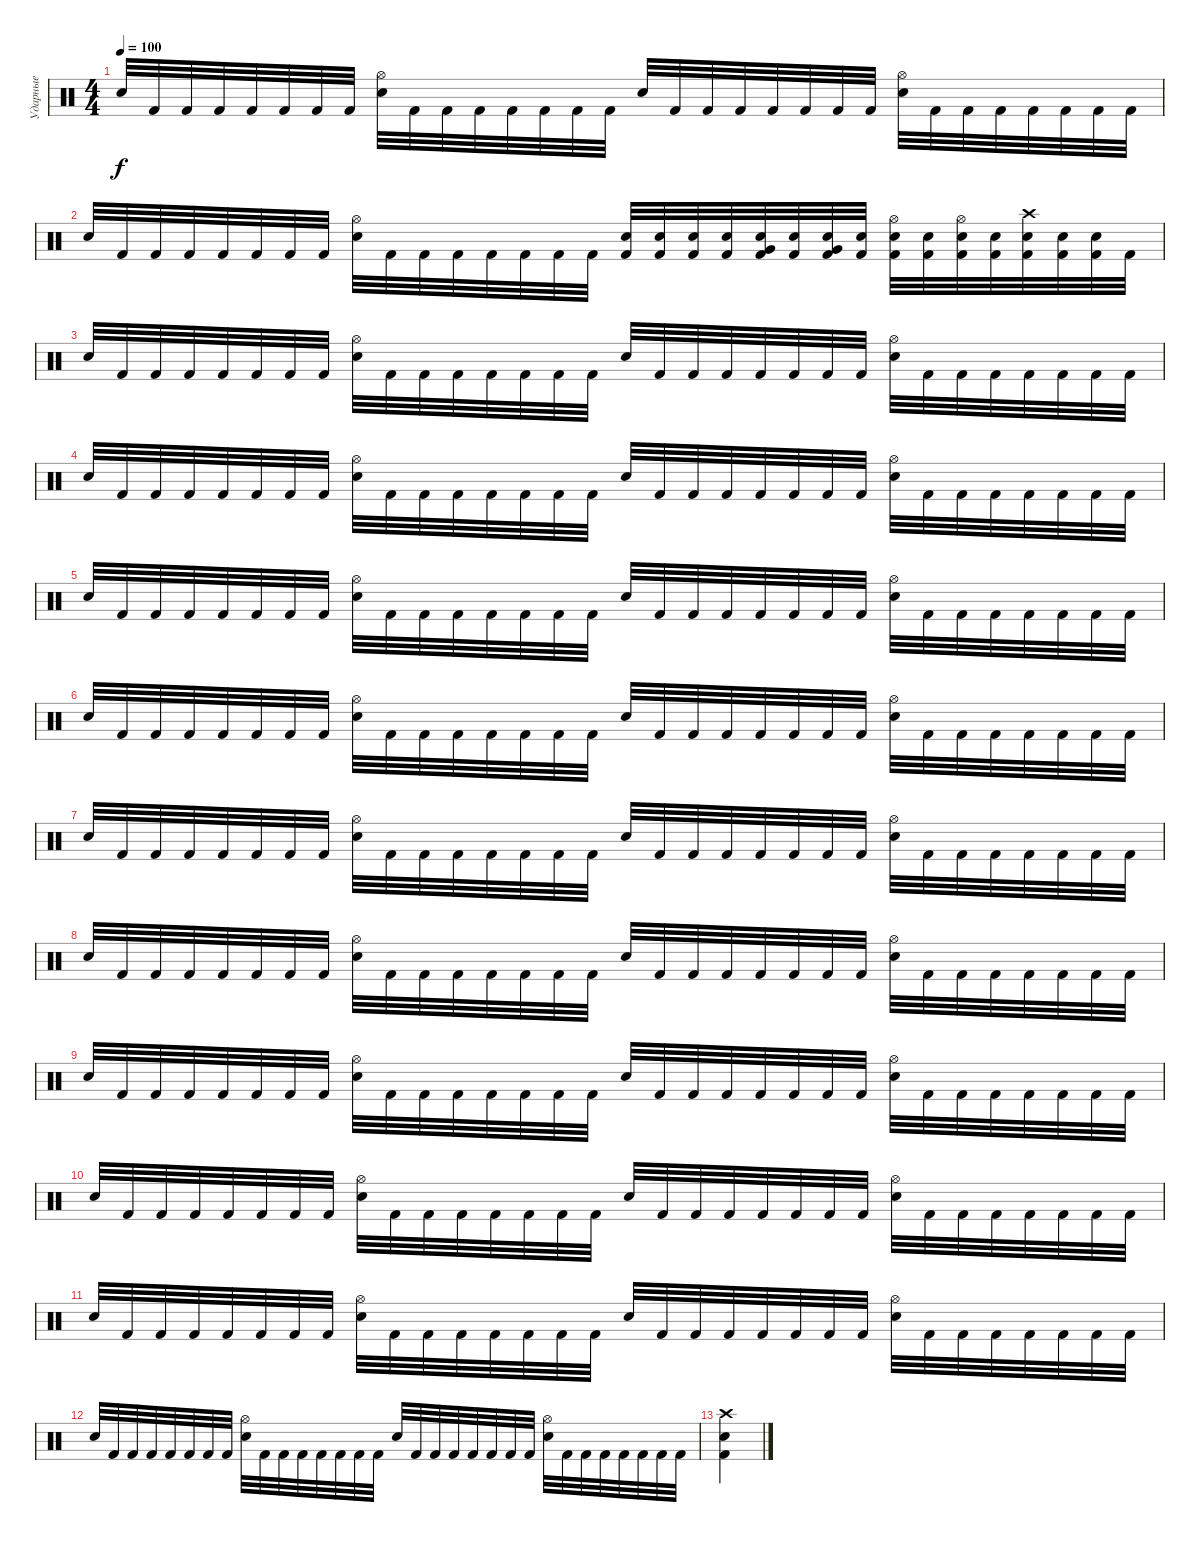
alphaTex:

\track ("Ударные" "Ударные") {instrument percussion}
\staff {score}
\articulation defaults
\ts (4 4)
\tempo 100
\clef neutral
\ks c "Electric Snare (hit)".32{dy f} "Kick (hit) 2".32 "Kick (hit) 2".32 "Kick (hit) 2".32 "Kick (hit) 2".32 "Kick (hit) 2".32 "Kick (hit) 2".32 "Kick (hit) 2".32
("Hi-Hat (open)" "Electric Snare (hit)").32 "Kick (hit) 2".32 "Kick (hit) 2".32 "Kick (hit) 2".32 "Kick (hit) 2".32 "Kick (hit) 2".32 "Kick (hit) 2".32 "Kick (hit) 2".32 "Electric Snare (hit)".32 "Kick (hit) 2".32 "Kick (hit) 2".32 "Kick (hit) 2".32 "Kick (hit) 2".32 "Kick (hit) 2".32 "Kick (hit) 2".32 "Kick (hit) 2".32 ("Hi-Hat (open)" "Electric Snare (hit)").32 "Kick (hit) 2".32 "Kick (hit) 2".32 "Kick (hit) 2".32 "Kick (hit) 2".32 "Kick (hit) 2".32 "Kick (hit) 2".32 "Kick (hit) 2".32 |
"Electric Snare (hit)".32 "Kick (hit) 2".32 "Kick (hit) 2".32 "Kick (hit) 2".32 "Kick (hit) 2".32 "Kick (hit) 2".32 "Kick (hit) 2".32 "Kick (hit) 2".32 ("Hi-Hat (open)" "Electric Snare (hit)").32 "Kick (hit) 2".32 "Kick (hit) 2".32 "Kick (hit) 2".32 "Kick (hit) 2".32 "Kick (hit) 2".32 "Kick (hit) 2".32 "Kick (hit) 2".32 ("Electric Snare (hit)" "Kick (hit) 2").32 ("Electric Snare (hit)" "Kick (hit) 2").32 ("Electric Snare (hit)" "Kick (hit) 2").32 ("Electric Snare (hit)" "Kick (hit) 2").32 ("Very Low Tom (hit)" "Electric Snare (hit)" "Kick (hit) 2").32 ("Electric Snare (hit)" "Kick (hit) 2").32 ("Very Low Tom (hit)" "Electric Snare (hit)" "Kick (hit) 2").32 ("Electric Snare (hit)" "Kick (hit) 2").32 ("Hi-Hat (open)" "Electric Snare (hit)" "Kick (hit) 2").32 ("Electric Snare (hit)" "Kick (hit) 2").32 ("Hi-Hat (open)" "Electric Snare (hit)" "Kick (hit) 2").32 ("Electric Snare (hit)" "Kick (hit) 2").32 ("Crash high (hit)" "Electric Snare (hit)" "Kick (hit) 2").32 ("Electric Snare (hit)" "Kick (hit) 2").32 ("Electric Snare (hit)" "Kick (hit) 2").32 "Kick (hit) 2".32 |
"Electric Snare (hit)".32 "Kick (hit) 2".32 "Kick (hit) 2".32 "Kick (hit) 2".32 "Kick (hit) 2".32 "Kick (hit) 2".32 "Kick (hit) 2".32 "Kick (hit) 2".32 ("Hi-Hat (open)" "Electric Snare (hit)").32 "Kick (hit) 2".32 "Kick (hit) 2".32 "Kick (hit) 2".32 "Kick (hit) 2".32 "Kick (hit) 2".32 "Kick (hit) 2".32 "Kick (hit) 2".32 "Electric Snare (hit)".32 "Kick (hit) 2".32 "Kick (hit) 2".32 "Kick (hit) 2".32 "Kick (hit) 2".32 "Kick (hit) 2".32 "Kick (hit) 2".32 "Kick (hit) 2".32 ("Hi-Hat (open)" "Electric Snare (hit)").32 "Kick (hit) 2".32 "Kick (hit) 2".32 "Kick (hit) 2".32 "Kick (hit) 2".32 "Kick (hit) 2".32 "Kick (hit) 2".32 "Kick (hit) 2".32 |
"Electric Snare (hit)".32 "Kick (hit) 2".32 "Kick (hit) 2".32 "Kick (hit) 2".32 "Kick (hit) 2".32 "Kick (hit) 2".32 "Kick (hit) 2".32 "Kick (hit) 2".32 ("Hi-Hat (open)" "Electric Snare (hit)").32 "Kick (hit) 2".32 "Kick (hit) 2".32 "Kick (hit) 2".32 "Kick (hit) 2".32 "Kick (hit) 2".32 "Kick (hit) 2".32 "Kick (hit) 2".32 "Electric Snare (hit)".32 "Kick (hit) 2".32 "Kick (hit) 2".32 "Kick (hit) 2".32 "Kick (hit) 2".32 "Kick (hit) 2".32 "Kick (hit) 2".32 "Kick (hit) 2".32 ("Hi-Hat (open)" "Electric Snare (hit)").32 "Kick (hit) 2".32 "Kick (hit) 2".32 "Kick (hit) 2".32 "Kick (hit) 2".32 "Kick (hit) 2".32 "Kick (hit) 2".32 "Kick (hit) 2".32 |
"Electric Snare (hit)".32 "Kick (hit) 2".32 "Kick (hit) 2".32 "Kick (hit) 2".32 "Kick (hit) 2".32 "Kick (hit) 2".32 "Kick (hit) 2".32 "Kick (hit) 2".32 ("Hi-Hat (open)" "Electric Snare (hit)").32 "Kick (hit) 2".32 "Kick (hit) 2".32 "Kick (hit) 2".32 "Kick (hit) 2".32 "Kick (hit) 2".32 "Kick (hit) 2".32 "Kick (hit) 2".32 "Electric Snare (hit)".32 "Kick (hit) 2".32 "Kick (hit) 2".32 "Kick (hit) 2".32 "Kick (hit) 2".32 "Kick (hit) 2".32 "Kick (hit) 2".32 "Kick (hit) 2".32 ("Hi-Hat (open)" "Electric Snare (hit)").32 "Kick (hit) 2".32 "Kick (hit) 2".32 "Kick (hit) 2".32 "Kick (hit) 2".32 "Kick (hit) 2".32 "Kick (hit) 2".32 "Kick (hit) 2".32 |
"Electric Snare (hit)".32 "Kick (hit) 2".32 "Kick (hit) 2".32 "Kick (hit) 2".32 "Kick (hit) 2".32 "Kick (hit) 2".32 "Kick (hit) 2".32 "Kick (hit) 2".32 ("Hi-Hat (open)" "Electric Snare (hit)").32 "Kick (hit) 2".32 "Kick (hit) 2".32 "Kick (hit) 2".32 "Kick (hit) 2".32 "Kick (hit) 2".32 "Kick (hit) 2".32 "Kick (hit) 2".32 "Electric Snare (hit)".32 "Kick (hit) 2".32 "Kick (hit) 2".32 "Kick (hit) 2".32 "Kick (hit) 2".32 "Kick (hit) 2".32 "Kick (hit) 2".32 "Kick (hit) 2".32 ("Hi-Hat (open)" "Electric Snare (hit)").32 "Kick (hit) 2".32 "Kick (hit) 2".32 "Kick (hit) 2".32 "Kick (hit) 2".32 "Kick (hit) 2".32 "Kick (hit) 2".32 "Kick (hit) 2".32 |
"Electric Snare (hit)".32 "Kick (hit) 2".32 "Kick (hit) 2".32 "Kick (hit) 2".32 "Kick (hit) 2".32 "Kick (hit) 2".32 "Kick (hit) 2".32 "Kick (hit) 2".32 ("Hi-Hat (open)" "Electric Snare (hit)").32 "Kick (hit) 2".32 "Kick (hit) 2".32 "Kick (hit) 2".32 "Kick (hit) 2".32 "Kick (hit) 2".32 "Kick (hit) 2".32 "Kick (hit) 2".32 "Electric Snare (hit)".32 "Kick (hit) 2".32 "Kick (hit) 2".32 "Kick (hit) 2".32 "Kick (hit) 2".32 "Kick (hit) 2".32 "Kick (hit) 2".32 "Kick (hit) 2".32 ("Hi-Hat (open)" "Electric Snare (hit)").32 "Kick (hit) 2".32 "Kick (hit) 2".32 "Kick (hit) 2".32 "Kick (hit) 2".32 "Kick (hit) 2".32 "Kick (hit) 2".32 "Kick (hit) 2".32 |
"Electric Snare (hit)".32 "Kick (hit) 2".32 "Kick (hit) 2".32 "Kick (hit) 2".32 "Kick (hit) 2".32 "Kick (hit) 2".32 "Kick (hit) 2".32 "Kick (hit) 2".32 ("Hi-Hat (open)" "Electric Snare (hit)").32 "Kick (hit) 2".32 "Kick (hit) 2".32 "Kick (hit) 2".32 "Kick (hit) 2".32 "Kick (hit) 2".32 "Kick (hit) 2".32 "Kick (hit) 2".32 "Electric Snare (hit)".32 "Kick (hit) 2".32 "Kick (hit) 2".32 "Kick (hit) 2".32 "Kick (hit) 2".32 "Kick (hit) 2".32 "Kick (hit) 2".32 "Kick (hit) 2".32 ("Hi-Hat (open)" "Electric Snare (hit)").32 "Kick (hit) 2".32 "Kick (hit) 2".32 "Kick (hit) 2".32 "Kick (hit) 2".32 "Kick (hit) 2".32 "Kick (hit) 2".32 "Kick (hit) 2".32 |
"Electric Snare (hit)".32 "Kick (hit) 2".32 "Kick (hit) 2".32 "Kick (hit) 2".32 "Kick (hit) 2".32 "Kick (hit) 2".32 "Kick (hit) 2".32 "Kick (hit) 2".32 ("Hi-Hat (open)" "Electric Snare (hit)").32 "Kick (hit) 2".32 "Kick (hit) 2".32 "Kick (hit) 2".32 "Kick (hit) 2".32 "Kick (hit) 2".32 "Kick (hit) 2".32 "Kick (hit) 2".32 "Electric Snare (hit)".32 "Kick (hit) 2".32 "Kick (hit) 2".32 "Kick (hit) 2".32 "Kick (hit) 2".32 "Kick (hit) 2".32 "Kick (hit) 2".32 "Kick (hit) 2".32 ("Hi-Hat (open)" "Electric Snare (hit)").32 "Kick (hit) 2".32 "Kick (hit) 2".32 "Kick (hit) 2".32 "Kick (hit) 2".32 "Kick (hit) 2".32 "Kick (hit) 2".32 "Kick (hit) 2".32 |
"Electric Snare (hit)".32 "Kick (hit) 2".32 "Kick (hit) 2".32 "Kick (hit) 2".32 "Kick (hit) 2".32 "Kick (hit) 2".32 "Kick (hit) 2".32 "Kick (hit) 2".32 ("Hi-Hat (open)" "Electric Snare (hit)").32 "Kick (hit) 2".32 "Kick (hit) 2".32 "Kick (hit) 2".32 "Kick (hit) 2".32 "Kick (hit) 2".32 "Kick (hit) 2".32 "Kick (hit) 2".32 "Electric Snare (hit)".32 "Kick (hit) 2".32 "Kick (hit) 2".32 "Kick (hit) 2".32 "Kick (hit) 2".32 "Kick (hit) 2".32 "Kick (hit) 2".32 "Kick (hit) 2".32 ("Hi-Hat (open)" "Electric Snare (hit)").32 "Kick (hit) 2".32 "Kick (hit) 2".32 "Kick (hit) 2".32 "Kick (hit) 2".32 "Kick (hit) 2".32 "Kick (hit) 2".32 "Kick (hit) 2".32 |
"Electric Snare (hit)".32 "Kick (hit) 2".32 "Kick (hit) 2".32 "Kick (hit) 2".32 "Kick (hit) 2".32 "Kick (hit) 2".32 "Kick (hit) 2".32 "Kick (hit) 2".32 ("Hi-Hat (open)" "Electric Snare (hit)").32 "Kick (hit) 2".32 "Kick (hit) 2".32 "Kick (hit) 2".32 "Kick (hit) 2".32 "Kick (hit) 2".32 "Kick (hit) 2".32 "Kick (hit) 2".32 "Electric Snare (hit)".32 "Kick (hit) 2".32 "Kick (hit) 2".32 "Kick (hit) 2".32 "Kick (hit) 2".32 "Kick (hit) 2".32 "Kick (hit) 2".32 "Kick (hit) 2".32 ("Hi-Hat (open)" "Electric Snare (hit)").32 "Kick (hit) 2".32 "Kick (hit) 2".32 "Kick (hit) 2".32 "Kick (hit) 2".32 "Kick (hit) 2".32 "Kick (hit) 2".32 "Kick (hit) 2".32 |
"Electric Snare (hit)".32 "Kick (hit) 2".32 "Kick (hit) 2".32 "Kick (hit) 2".32 "Kick (hit) 2".32 "Kick (hit) 2".32 "Kick (hit) 2".32 "Kick (hit) 2".32 ("Hi-Hat (open)" "Electric Snare (hit)").32 "Kick (hit) 2".32 "Kick (hit) 2".32 "Kick (hit) 2".32 "Kick (hit) 2".32 "Kick (hit) 2".32 "Kick (hit) 2".32 "Kick (hit) 2".32 "Electric Snare (hit)".32 "Kick (hit) 2".32 "Kick (hit) 2".32 "Kick (hit) 2".32 "Kick (hit) 2".32 "Kick (hit) 2".32 "Kick (hit) 2".32 "Kick (hit) 2".32 ("Hi-Hat (open)" "Electric Snare (hit)").32 "Kick (hit) 2".32 "Kick (hit) 2".32 "Kick (hit) 2".32 "Kick (hit) 2".32 "Kick (hit) 2".32 "Kick (hit) 2".32 "Kick (hit) 2".32 |
("Crash high (hit)" "Electric Snare (hit)" "Kick (hit) 2").4
